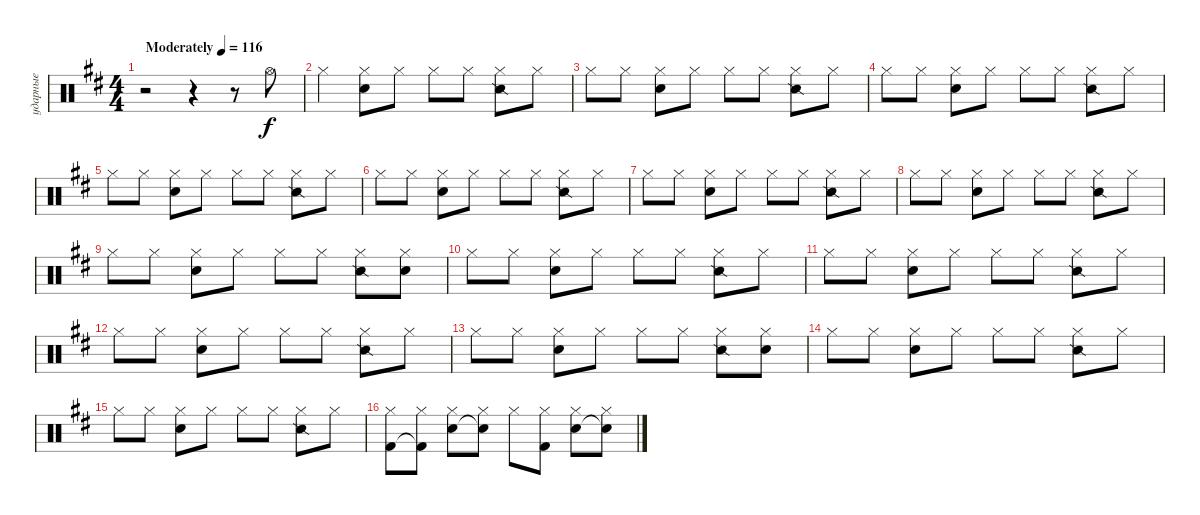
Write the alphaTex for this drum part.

\track ("ударные" "ударные") {instrument percussion}
\staff {score}
\articulation defaults
\ts (4 4)
\tempo (116 "Moderately")
\clef neutral
\ks d
r.2{dy f} r.4 r.8 "Hi-Hat (open)".8 |
"Hi-Hat (closed)".4 ("Hi-Hat (closed)" "Hand Clap (hit)").8 "Hi-Hat (closed)".8 "Hi-Hat (closed)".8 "Hi-Hat (closed)".8 ("Hi-Hat (closed)" "Snare (side stick) 2").8 "Hi-Hat (closed)".8 |
"Hi-Hat (closed)".8 "Hi-Hat (closed)".8 ("Hi-Hat (closed)" "Hand Clap (hit)").8 "Hi-Hat (closed)".8 "Hi-Hat (closed)".8 "Hi-Hat (closed)".8 ("Hi-Hat (closed)" "Snare (side stick) 2").8 "Hi-Hat (closed)".8 |
"Hi-Hat (closed)".8 "Hi-Hat (closed)".8 ("Hi-Hat (closed)" "Hand Clap (hit)").8 "Hi-Hat (closed)".8 "Hi-Hat (closed)".8 "Hi-Hat (closed)".8 ("Hi-Hat (closed)" "Snare (side stick) 2").8 "Hi-Hat (closed)".8 |
"Hi-Hat (closed)".8 "Hi-Hat (closed)".8 ("Hi-Hat (closed)" "Hand Clap (hit)").8 "Hi-Hat (closed)".8 "Hi-Hat (closed)".8 "Hi-Hat (closed)".8 ("Hi-Hat (closed)" "Snare (side stick) 2").8 "Hi-Hat (closed)".8 |
"Hi-Hat (closed)".8 "Hi-Hat (closed)".8 ("Hi-Hat (closed)" "Hand Clap (hit)").8 "Hi-Hat (closed)".8 "Hi-Hat (closed)".8 "Hi-Hat (closed)".8 ("Hi-Hat (closed)" "Snare (side stick) 2").8 "Hi-Hat (closed)".8 |
"Hi-Hat (closed)".8 "Hi-Hat (closed)".8 ("Hi-Hat (closed)" "Hand Clap (hit)").8 "Hi-Hat (closed)".8 "Hi-Hat (closed)".8 "Hi-Hat (closed)".8 ("Hi-Hat (closed)" "Snare (side stick) 2").8 "Hi-Hat (closed)".8 |
"Hi-Hat (closed)".8 "Hi-Hat (closed)".8 ("Hi-Hat (closed)" "Hand Clap (hit)").8 "Hi-Hat (closed)".8 "Hi-Hat (closed)".8 "Hi-Hat (closed)".8 ("Hi-Hat (closed)" "Snare (side stick) 2").8 "Hi-Hat (closed)".8 |
"Hi-Hat (closed)".8 "Hi-Hat (closed)".8 ("Hi-Hat (closed)" "Hand Clap (hit)").8 "Hi-Hat (closed)".8 "Hi-Hat (closed)".8 "Hi-Hat (closed)".8 ("Hi-Hat (closed)" "Snare (side stick) 2").8 ("Hi-Hat (closed)" "Hand Clap (hit)").8 |
"Hi-Hat (closed)".8 "Hi-Hat (closed)".8 ("Hi-Hat (closed)" "Hand Clap (hit)").8 "Hi-Hat (closed)".8 "Hi-Hat (closed)".8 "Hi-Hat (closed)".8 ("Hi-Hat (closed)" "Snare (side stick) 2").8 "Hi-Hat (closed)".8 |
"Hi-Hat (closed)".8 "Hi-Hat (closed)".8 ("Hi-Hat (closed)" "Hand Clap (hit)").8 "Hi-Hat (closed)".8 "Hi-Hat (closed)".8 "Hi-Hat (closed)".8 ("Hi-Hat (closed)" "Snare (side stick) 2").8 "Hi-Hat (closed)".8 |
"Hi-Hat (closed)".8 "Hi-Hat (closed)".8 ("Hi-Hat (closed)" "Hand Clap (hit)").8 "Hi-Hat (closed)".8 "Hi-Hat (closed)".8 "Hi-Hat (closed)".8 ("Hi-Hat (closed)" "Snare (side stick) 2").8 "Hi-Hat (closed)".8 |
"Hi-Hat (closed)".8 "Hi-Hat (closed)".8 ("Hi-Hat (closed)" "Hand Clap (hit)").8 "Hi-Hat (closed)".8 "Hi-Hat (closed)".8 "Hi-Hat (closed)".8 ("Hi-Hat (closed)" "Snare (side stick) 2").8 ("Hi-Hat (closed)" "Hand Clap (hit)").8 |
"Hi-Hat (closed)".8 "Hi-Hat (closed)".8 ("Hi-Hat (closed)" "Hand Clap (hit)").8 "Hi-Hat (closed)".8 "Hi-Hat (closed)".8 "Hi-Hat (closed)".8 ("Hi-Hat (closed)" "Snare (side stick) 2").8 "Hi-Hat (closed)".8 |
"Hi-Hat (closed)".8 "Hi-Hat (closed)".8 ("Hi-Hat (closed)" "Hand Clap (hit)").8 "Hi-Hat (closed)".8 "Hi-Hat (closed)".8 "Hi-Hat (closed)".8 ("Hi-Hat (closed)" "Snare (side stick) 2").8 "Hi-Hat (closed)".8 |
("Hi-Hat (closed)" "Kick (hit) 2").8 ("Hi-Hat (closed)" "Kick (hit) 2"{t}).8 ("Hi-Hat (closed)" "Snare (hit) 2").8 ("Hi-Hat (closed)" "Snare (hit) 2"{t}).8 "Hi-Hat (closed)".8 ("Hi-Hat (closed)" "Kick (hit) 2").8 ("Hi-Hat (closed)" "Snare (hit) 2").8 ("Hi-Hat (closed)" "Snare (hit) 2"{t}).8
